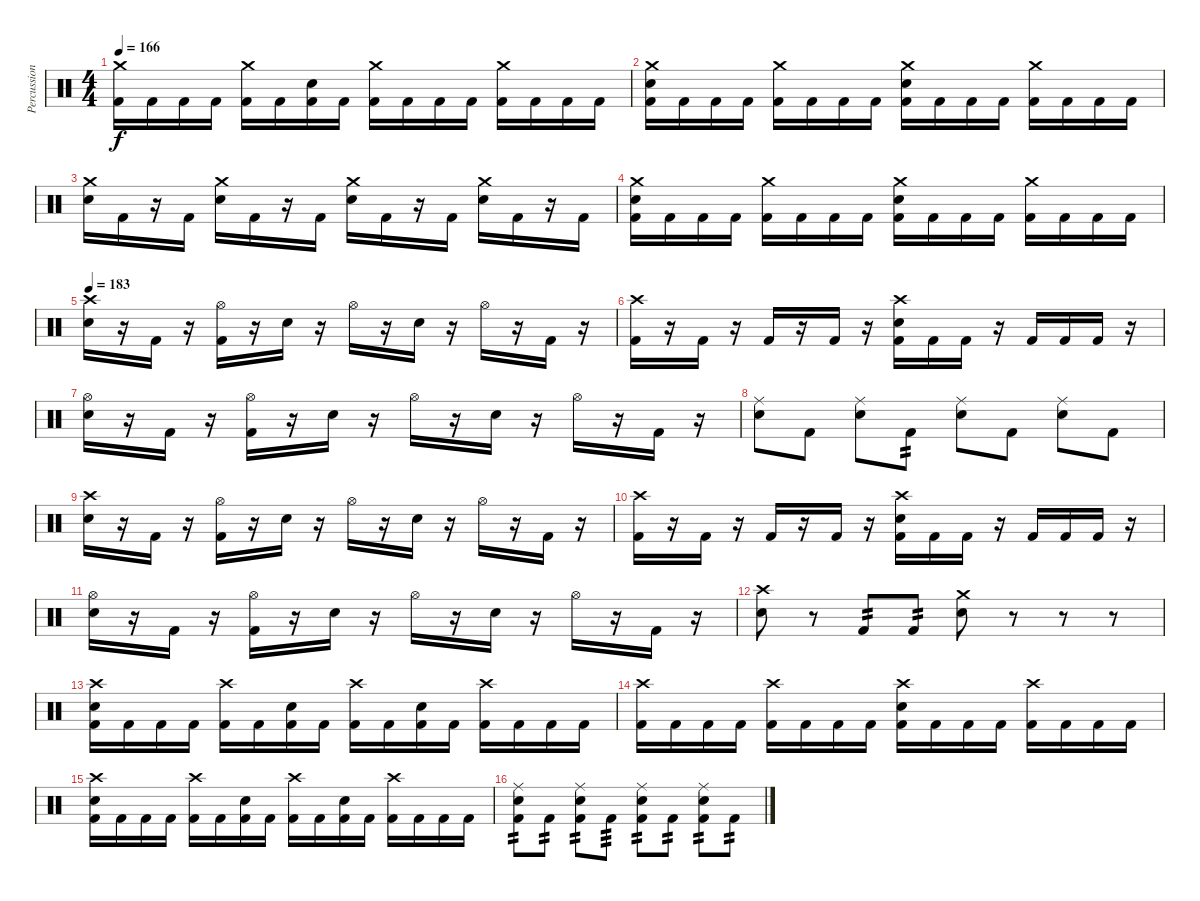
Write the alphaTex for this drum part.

\track ("Percussion" "Percussion") {instrument percussion}
\staff {score}
\articulation defaults
\ts (4 4)
\tempo 166
\clef neutral
\ks c
("Crash medium (hit)" "Kick (hit) 2").16{dy f} "Kick (hit) 2".16 "Kick (hit) 2".16 "Kick (hit) 2".16 ("Crash medium (hit)" "Kick (hit) 2").16 "Kick (hit) 2".16 ("Snare (hit) 2" "Kick (hit) 2").16 "Kick (hit) 2".16 ("Crash medium (hit)" "Kick (hit) 2").16 "Kick (hit) 2".16 "Kick (hit) 2".16 "Kick (hit) 2".16 ("Crash medium (hit)" "Kick (hit) 2").16 "Kick (hit) 2".16 "Kick (hit) 2".16 "Kick (hit) 2".16 |
("Crash medium (hit)" "Snare (hit) 2" "Kick (hit) 2").16 "Kick (hit) 2".16 "Kick (hit) 2".16 "Kick (hit) 2".16 ("Crash medium (hit)" "Kick (hit) 2").16 "Kick (hit) 2".16 "Kick (hit) 2".16 "Kick (hit) 2".16 ("Crash medium (hit)" "Snare (hit) 2" "Kick (hit) 2").16 "Kick (hit) 2".16 "Kick (hit) 2".16 "Kick (hit) 2".16 ("Crash medium (hit)" "Kick (hit) 2").16 "Kick (hit) 2".16 "Kick (hit) 2".16 "Kick (hit) 2".16 |
("Crash medium (hit)" "Snare (hit) 2").16 "Kick (hit) 2".16 r.16 "Kick (hit) 2".16 ("Crash medium (hit)" "Snare (hit) 2").16 "Kick (hit) 2".16 r.16 "Kick (hit) 2".16 ("Crash medium (hit)" "Snare (hit) 2").16 "Kick (hit) 2".16 r.16 "Kick (hit) 2".16 ("Crash medium (hit)" "Snare (hit) 2").16 "Kick (hit) 2".16 r.16 "Kick (hit) 2".16 |
("Crash medium (hit)" "Snare (hit) 2" "Kick (hit) 2").16 "Kick (hit) 2".16 "Kick (hit) 2".16 "Kick (hit) 2".16 ("Crash medium (hit)" "Kick (hit) 2").16 "Kick (hit) 2".16 "Kick (hit) 2".16 "Kick (hit) 2".16 ("Crash medium (hit)" "Snare (hit) 2" "Kick (hit) 2").16 "Kick (hit) 2".16 "Kick (hit) 2".16 "Kick (hit) 2".16 ("Crash medium (hit)" "Kick (hit) 2").16 "Kick (hit) 2".16 "Kick (hit) 2".16 "Kick (hit) 2".16 |
\tempo 183
("Crash high (hit)" "Snare (hit) 2").16 r.16 "Kick (hit) 2".16 r.16 ("Hi-Hat (open)" "Kick (hit) 2").16 r.16 "Snare (hit) 2".16 r.16 "Hi-Hat (open)".16 r.16 "Snare (hit) 2".16 r.16 "Hi-Hat (open)".16 r.16 "Kick (hit) 2".16 r.16 |
("Crash high (hit)" "Kick (hit) 2").16 r.16 "Kick (hit) 2".16 r.16 "Kick (hit) 2".16 r.16 "Kick (hit) 2".16 r.16 ("Crash high (hit)" "Snare (hit) 2" "Kick (hit) 2").16 "Kick (hit) 2".16 "Kick (hit) 2".16 r.16 "Kick (hit) 2".16 "Kick (hit) 2".16 "Kick (hit) 2".16 r.16 |
("Hi-Hat (open)" "Snare (hit) 2").16 r.16 "Kick (hit) 2".16 r.16 ("Hi-Hat (open)" "Kick (hit) 2").16 r.16 "Snare (hit) 2".16 r.16 "Hi-Hat (open)".16 r.16 "Snare (hit) 2".16 r.16 "Hi-Hat (open)".16 r.16 "Kick (hit) 2".16 r.16 |
("Ride (middle)" "Snare (hit) 2").8 "Kick (hit) 2".8 ("Ride (middle)" "Snare (hit) 2").8 "Kick (hit) 2".8{tp 2} ("Ride (middle)" "Snare (hit) 2").8 "Kick (hit) 2".8 ("Ride (middle)" "Snare (hit) 2").8 "Kick (hit) 2".8 |
("Crash high (hit)" "Snare (hit) 2").16 r.16 "Kick (hit) 2".16 r.16 ("Hi-Hat (open)" "Kick (hit) 2").16 r.16 "Snare (hit) 2".16 r.16 "Hi-Hat (open)".16 r.16 "Snare (hit) 2".16 r.16 "Hi-Hat (open)".16 r.16 "Kick (hit) 2".16 r.16 |
("Crash high (hit)" "Kick (hit) 2").16 r.16 "Kick (hit) 2".16 r.16 "Kick (hit) 2".16 r.16 "Kick (hit) 2".16 r.16 ("Crash high (hit)" "Snare (hit) 2" "Kick (hit) 2").16 "Kick (hit) 2".16 "Kick (hit) 2".16 r.16 "Kick (hit) 2".16 "Kick (hit) 2".16 "Kick (hit) 2".16 r.16 |
("Hi-Hat (open)" "Snare (hit) 2").16 r.16 "Kick (hit) 2".16 r.16 ("Hi-Hat (open)" "Kick (hit) 2").16 r.16 "Snare (hit) 2".16 r.16 "Hi-Hat (open)".16 r.16 "Snare (hit) 2".16 r.16 "Hi-Hat (open)".16 r.16 "Kick (hit) 2".16 r.16 |
("Crash high (hit)" "Snare (hit) 2").8 r.8 "Kick (hit) 2".8{tp 2} "Kick (hit) 2".8{tp 2} ("Crash medium (hit)" "Snare (hit) 2").8 r.8 r.8 r.8 |
("Crash high (hit)" "Snare (hit) 2" "Kick (hit) 2").16 "Kick (hit) 2".16 "Kick (hit) 2".16 "Kick (hit) 2".16 ("Crash high (hit)" "Kick (hit) 2").16 "Kick (hit) 2".16 ("Snare (hit) 2" "Kick (hit) 2").16 "Kick (hit) 2".16 ("Crash high (hit)" "Kick (hit) 2").16 "Kick (hit) 2".16 ("Snare (hit) 2" "Kick (hit) 2").16 "Kick (hit) 2".16 ("Crash high (hit)" "Kick (hit) 2").16 "Kick (hit) 2".16 "Kick (hit) 2".16 "Kick (hit) 2".16 |
("Crash high (hit)" "Kick (hit) 2").16 "Kick (hit) 2".16 "Kick (hit) 2".16 "Kick (hit) 2".16 ("Crash high (hit)" "Kick (hit) 2").16 "Kick (hit) 2".16 "Kick (hit) 2".16 "Kick (hit) 2".16 ("Crash high (hit)" "Snare (hit) 2" "Kick (hit) 2").16 "Kick (hit) 2".16 "Kick (hit) 2".16 "Kick (hit) 2".16 ("Crash high (hit)" "Kick (hit) 2").16 "Kick (hit) 2".16 "Kick (hit) 2".16 "Kick (hit) 2".16 |
("Crash high (hit)" "Snare (hit) 2" "Kick (hit) 2").16 "Kick (hit) 2".16 "Kick (hit) 2".16 "Kick (hit) 2".16 ("Crash high (hit)" "Kick (hit) 2").16 "Kick (hit) 2".16 ("Snare (hit) 2" "Kick (hit) 2").16 "Kick (hit) 2".16 ("Crash high (hit)" "Kick (hit) 2").16 "Kick (hit) 2".16 ("Snare (hit) 2" "Kick (hit) 2").16 "Kick (hit) 2".16 ("Crash high (hit)" "Kick (hit) 2").16 "Kick (hit) 2".16 "Kick (hit) 2".16 "Kick (hit) 2".16 |
("Ride (middle)" "Snare (hit) 2" "Kick (hit) 2").8{tp 2} "Kick (hit) 2".8{tp 2} ("Ride (middle)" "Snare (hit) 2" "Kick (hit) 2").8{tp 2} "Kick (hit) 2".8{tp 3} ("Ride (middle)" "Snare (hit) 2" "Kick (hit) 2").8{tp 2} "Kick (hit) 2".8{tp 2} ("Ride (middle)" "Snare (hit) 2" "Kick (hit) 2").8{tp 2} "Kick (hit) 2".8{tp 2}
